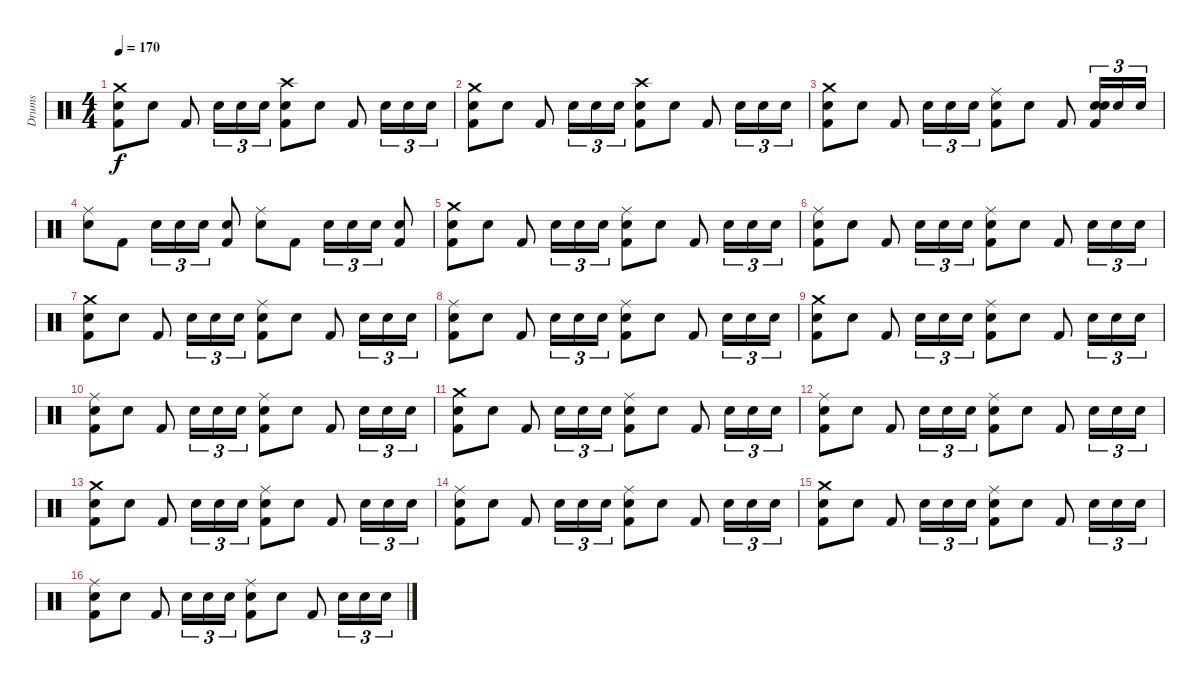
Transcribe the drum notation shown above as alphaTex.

\track ("Drums" "Drums") {instrument percussion}
\staff {score}
\articulation defaults
\ts (4 4)
\tempo 170
\clef neutral
\ks c
("Kick (hit) 2" "Snare (hit) 2" "Crash medium (hit)").8{dy f} "Snare (hit) 2".8 "Kick (hit) 2".8 "Snare (hit) 2".16{tu (3 2)} "Snare (hit) 2".16{tu (3 2)} "Snare (hit) 2".16{tu (3 2)} ("Kick (hit) 2" "Snare (hit) 2" "Crash high (hit)").8 "Snare (hit) 2".8 "Kick (hit) 2".8 "Snare (hit) 2".16{tu (3 2)} "Snare (hit) 2".16{tu (3 2)} "Snare (hit) 2".16{tu (3 2)} |
("Kick (hit) 2" "Snare (hit) 2" "Crash medium (hit)").8 "Snare (hit) 2".8 "Kick (hit) 2".8 "Snare (hit) 2".16{tu (3 2)} "Snare (hit) 2".16{tu (3 2)} "Snare (hit) 2".16{tu (3 2)} ("Kick (hit) 2" "Snare (hit) 2" "Crash high (hit)").8 "Snare (hit) 2".8 "Kick (hit) 2".8 "Snare (hit) 2".16{tu (3 2)} "Snare (hit) 2".16{tu (3 2)} "Snare (hit) 2".16{tu (3 2)} |
("Kick (hit) 2" "Snare (hit) 2" "Crash medium (hit)").8 "Snare (hit) 2".8 "Kick (hit) 2".8 "Snare (hit) 2".16{tu (3 2)} "Snare (hit) 2".16{tu (3 2)} "Snare (hit) 2".16{tu (3 2)} ("Kick (hit) 2" "Snare (hit) 2" "Ride (middle)").8 "Snare (hit) 2".8 "Kick (hit) 2".8 ("Snare (hit) 2" "Kick (hit) 2" "Snare (hit) 2").16{tu (3 2)} "Snare (hit) 2".16{tu (3 2)} "Snare (hit) 2".16{tu (3 2)} |
("Snare (hit) 2" "Ride (middle)").8 "Kick (hit) 2".8 "Snare (hit) 2".16{tu (3 2)} "Snare (hit) 2".16{tu (3 2)} "Snare (hit) 2".16{tu (3 2)} ("Snare (hit) 2" "Kick (hit) 2").8 ("Snare (hit) 2" "Ride (middle)").8 "Kick (hit) 2".8 "Snare (hit) 2".16{tu (3 2)} "Snare (hit) 2".16{tu (3 2)} "Snare (hit) 2".16{tu (3 2)} ("Kick (hit) 2" "Snare (hit) 2").8 |
("Kick (hit) 2" "Snare (hit) 2" "Crash medium (hit)").8 "Snare (hit) 2".8 "Kick (hit) 2".8 "Snare (hit) 2".16{tu (3 2)} "Snare (hit) 2".16{tu (3 2)} "Snare (hit) 2".16{tu (3 2)} ("Kick (hit) 2" "Snare (hit) 2" "Ride (middle)").8 "Snare (hit) 2".8 "Kick (hit) 2".8 "Snare (hit) 2".16{tu (3 2)} "Snare (hit) 2".16{tu (3 2)} "Snare (hit) 2".16{tu (3 2)} |
("Kick (hit) 2" "Snare (hit) 2" "Ride (middle)").8 "Snare (hit) 2".8 "Kick (hit) 2".8 "Snare (hit) 2".16{tu (3 2)} "Snare (hit) 2".16{tu (3 2)} "Snare (hit) 2".16{tu (3 2)} ("Kick (hit) 2" "Snare (hit) 2" "Ride (middle)").8 "Snare (hit) 2".8 "Kick (hit) 2".8 "Snare (hit) 2".16{tu (3 2)} "Snare (hit) 2".16{tu (3 2)} "Snare (hit) 2".16{tu (3 2)} |
("Kick (hit) 2" "Snare (hit) 2" "Crash medium (hit)").8 "Snare (hit) 2".8 "Kick (hit) 2".8 "Snare (hit) 2".16{tu (3 2)} "Snare (hit) 2".16{tu (3 2)} "Snare (hit) 2".16{tu (3 2)} ("Kick (hit) 2" "Snare (hit) 2" "Ride (middle)").8 "Snare (hit) 2".8 "Kick (hit) 2".8 "Snare (hit) 2".16{tu (3 2)} "Snare (hit) 2".16{tu (3 2)} "Snare (hit) 2".16{tu (3 2)} |
("Kick (hit) 2" "Snare (hit) 2" "Ride (middle)").8 "Snare (hit) 2".8 "Kick (hit) 2".8 "Snare (hit) 2".16{tu (3 2)} "Snare (hit) 2".16{tu (3 2)} "Snare (hit) 2".16{tu (3 2)} ("Kick (hit) 2" "Snare (hit) 2" "Ride (middle)").8 "Snare (hit) 2".8 "Kick (hit) 2".8 "Snare (hit) 2".16{tu (3 2)} "Snare (hit) 2".16{tu (3 2)} "Snare (hit) 2".16{tu (3 2)} |
("Kick (hit) 2" "Snare (hit) 2" "Crash medium (hit)").8 "Snare (hit) 2".8 "Kick (hit) 2".8 "Snare (hit) 2".16{tu (3 2)} "Snare (hit) 2".16{tu (3 2)} "Snare (hit) 2".16{tu (3 2)} ("Kick (hit) 2" "Snare (hit) 2" "Ride (middle)").8 "Snare (hit) 2".8 "Kick (hit) 2".8 "Snare (hit) 2".16{tu (3 2)} "Snare (hit) 2".16{tu (3 2)} "Snare (hit) 2".16{tu (3 2)} |
("Kick (hit) 2" "Snare (hit) 2" "Ride (middle)").8 "Snare (hit) 2".8 "Kick (hit) 2".8 "Snare (hit) 2".16{tu (3 2)} "Snare (hit) 2".16{tu (3 2)} "Snare (hit) 2".16{tu (3 2)} ("Kick (hit) 2" "Snare (hit) 2" "Ride (middle)").8 "Snare (hit) 2".8 "Kick (hit) 2".8 "Snare (hit) 2".16{tu (3 2)} "Snare (hit) 2".16{tu (3 2)} "Snare (hit) 2".16{tu (3 2)} |
("Kick (hit) 2" "Snare (hit) 2" "Crash medium (hit)").8 "Snare (hit) 2".8 "Kick (hit) 2".8 "Snare (hit) 2".16{tu (3 2)} "Snare (hit) 2".16{tu (3 2)} "Snare (hit) 2".16{tu (3 2)} ("Kick (hit) 2" "Snare (hit) 2" "Ride (middle)").8 "Snare (hit) 2".8 "Kick (hit) 2".8 "Snare (hit) 2".16{tu (3 2)} "Snare (hit) 2".16{tu (3 2)} "Snare (hit) 2".16{tu (3 2)} |
("Kick (hit) 2" "Snare (hit) 2" "Ride (middle)").8 "Snare (hit) 2".8 "Kick (hit) 2".8 "Snare (hit) 2".16{tu (3 2)} "Snare (hit) 2".16{tu (3 2)} "Snare (hit) 2".16{tu (3 2)} ("Kick (hit) 2" "Snare (hit) 2" "Ride (middle)").8 "Snare (hit) 2".8 "Kick (hit) 2".8 "Snare (hit) 2".16{tu (3 2)} "Snare (hit) 2".16{tu (3 2)} "Snare (hit) 2".16{tu (3 2)} |
("Kick (hit) 2" "Snare (hit) 2" "Crash medium (hit)").8 "Snare (hit) 2".8 "Kick (hit) 2".8 "Snare (hit) 2".16{tu (3 2)} "Snare (hit) 2".16{tu (3 2)} "Snare (hit) 2".16{tu (3 2)} ("Kick (hit) 2" "Snare (hit) 2" "Ride (middle)").8 "Snare (hit) 2".8 "Kick (hit) 2".8 "Snare (hit) 2".16{tu (3 2)} "Snare (hit) 2".16{tu (3 2)} "Snare (hit) 2".16{tu (3 2)} |
("Kick (hit) 2" "Snare (hit) 2" "Ride (middle)").8 "Snare (hit) 2".8 "Kick (hit) 2".8 "Snare (hit) 2".16{tu (3 2)} "Snare (hit) 2".16{tu (3 2)} "Snare (hit) 2".16{tu (3 2)} ("Kick (hit) 2" "Snare (hit) 2" "Ride (middle)").8 "Snare (hit) 2".8 "Kick (hit) 2".8 "Snare (hit) 2".16{tu (3 2)} "Snare (hit) 2".16{tu (3 2)} "Snare (hit) 2".16{tu (3 2)} |
("Kick (hit) 2" "Snare (hit) 2" "Crash medium (hit)").8 "Snare (hit) 2".8 "Kick (hit) 2".8 "Snare (hit) 2".16{tu (3 2)} "Snare (hit) 2".16{tu (3 2)} "Snare (hit) 2".16{tu (3 2)} ("Kick (hit) 2" "Snare (hit) 2" "Ride (middle)").8 "Snare (hit) 2".8 "Kick (hit) 2".8 "Snare (hit) 2".16{tu (3 2)} "Snare (hit) 2".16{tu (3 2)} "Snare (hit) 2".16{tu (3 2)} |
("Kick (hit) 2" "Snare (hit) 2" "Ride (middle)").8 "Snare (hit) 2".8 "Kick (hit) 2".8 "Snare (hit) 2".16{tu (3 2)} "Snare (hit) 2".16{tu (3 2)} "Snare (hit) 2".16{tu (3 2)} ("Kick (hit) 2" "Snare (hit) 2" "Ride (middle)").8 "Snare (hit) 2".8 "Kick (hit) 2".8 "Snare (hit) 2".16{tu (3 2)} "Snare (hit) 2".16{tu (3 2)} "Snare (hit) 2".16{tu (3 2)}
